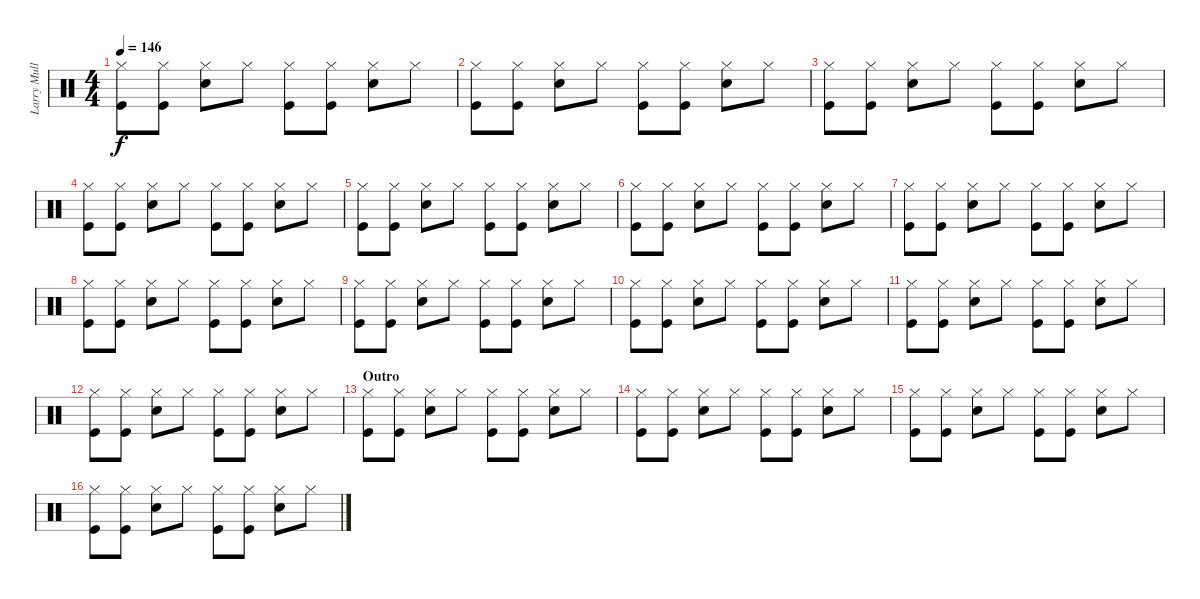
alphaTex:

\track ("Larry Mullen" "Larry Mull") {instrument percussion}
\staff {score}
\articulation defaults
\ts (4 4)
\tempo 146
\clef neutral
\ks c
("Hi-Hat (closed)" "Kick (hit)").8{dy f} ("Hi-Hat (closed)" "Kick (hit)").8 ("Hi-Hat (closed)" "Snare (hit) 2").8 "Hi-Hat (closed)".8 ("Hi-Hat (closed)" "Kick (hit)").8 ("Hi-Hat (closed)" "Kick (hit)").8 ("Hi-Hat (closed)" "Snare (hit) 2").8 "Hi-Hat (closed)".8 |
("Hi-Hat (closed)" "Kick (hit)").8 ("Hi-Hat (closed)" "Kick (hit)").8 ("Hi-Hat (closed)" "Snare (hit) 2").8 "Hi-Hat (closed)".8 ("Hi-Hat (closed)" "Kick (hit)").8 ("Hi-Hat (closed)" "Kick (hit)").8 ("Hi-Hat (closed)" "Snare (hit) 2").8 "Hi-Hat (closed)".8 |
("Hi-Hat (closed)" "Kick (hit)").8 ("Hi-Hat (closed)" "Kick (hit)").8 ("Hi-Hat (closed)" "Snare (hit) 2").8 "Hi-Hat (closed)".8 ("Hi-Hat (closed)" "Kick (hit)").8 ("Hi-Hat (closed)" "Kick (hit)").8 ("Hi-Hat (closed)" "Snare (hit) 2").8 "Hi-Hat (closed)".8 |
("Hi-Hat (closed)" "Kick (hit)").8 ("Hi-Hat (closed)" "Kick (hit)").8 ("Hi-Hat (closed)" "Snare (hit) 2").8 "Hi-Hat (closed)".8 ("Hi-Hat (closed)" "Kick (hit)").8 ("Hi-Hat (closed)" "Kick (hit)").8 ("Hi-Hat (closed)" "Snare (hit) 2").8 "Hi-Hat (closed)".8 |
("Hi-Hat (closed)" "Kick (hit)").8 ("Hi-Hat (closed)" "Kick (hit)").8 ("Hi-Hat (closed)" "Snare (hit) 2").8 "Hi-Hat (closed)".8 ("Hi-Hat (closed)" "Kick (hit)").8 ("Hi-Hat (closed)" "Kick (hit)").8 ("Hi-Hat (closed)" "Snare (hit) 2").8 "Hi-Hat (closed)".8 |
("Hi-Hat (closed)" "Kick (hit)").8 ("Hi-Hat (closed)" "Kick (hit)").8 ("Hi-Hat (closed)" "Snare (hit) 2").8 "Hi-Hat (closed)".8 ("Hi-Hat (closed)" "Kick (hit)").8 ("Hi-Hat (closed)" "Kick (hit)").8 ("Hi-Hat (closed)" "Snare (hit) 2").8 "Hi-Hat (closed)".8 |
("Hi-Hat (closed)" "Kick (hit)").8 ("Hi-Hat (closed)" "Kick (hit)").8 ("Hi-Hat (closed)" "Snare (hit) 2").8 "Hi-Hat (closed)".8 ("Hi-Hat (closed)" "Kick (hit)").8 ("Hi-Hat (closed)" "Kick (hit)").8 ("Hi-Hat (closed)" "Snare (hit) 2").8 "Hi-Hat (closed)".8 |
("Hi-Hat (closed)" "Kick (hit)").8 ("Hi-Hat (closed)" "Kick (hit)").8 ("Hi-Hat (closed)" "Snare (hit) 2").8 "Hi-Hat (closed)".8 ("Hi-Hat (closed)" "Kick (hit)").8 ("Hi-Hat (closed)" "Kick (hit)").8 ("Hi-Hat (closed)" "Snare (hit) 2").8 "Hi-Hat (closed)".8 |
("Hi-Hat (closed)" "Kick (hit)").8 ("Hi-Hat (closed)" "Kick (hit)").8 ("Hi-Hat (closed)" "Snare (hit) 2").8 "Hi-Hat (closed)".8 ("Hi-Hat (closed)" "Kick (hit)").8 ("Hi-Hat (closed)" "Kick (hit)").8 ("Hi-Hat (closed)" "Snare (hit) 2").8 "Hi-Hat (closed)".8 |
("Hi-Hat (closed)" "Kick (hit)").8 ("Hi-Hat (closed)" "Kick (hit)").8 ("Hi-Hat (closed)" "Snare (hit) 2").8 "Hi-Hat (closed)".8 ("Hi-Hat (closed)" "Kick (hit)").8 ("Hi-Hat (closed)" "Kick (hit)").8 ("Hi-Hat (closed)" "Snare (hit) 2").8 "Hi-Hat (closed)".8 |
("Hi-Hat (closed)" "Kick (hit)").8 ("Hi-Hat (closed)" "Kick (hit)").8 ("Hi-Hat (closed)" "Snare (hit) 2").8 "Hi-Hat (closed)".8 ("Hi-Hat (closed)" "Kick (hit)").8 ("Hi-Hat (closed)" "Kick (hit)").8 ("Hi-Hat (closed)" "Snare (hit) 2").8 "Hi-Hat (closed)".8 |
("Hi-Hat (closed)" "Kick (hit)").8 ("Hi-Hat (closed)" "Kick (hit)").8 ("Hi-Hat (closed)" "Snare (hit) 2").8 "Hi-Hat (closed)".8 ("Hi-Hat (closed)" "Kick (hit)").8 ("Hi-Hat (closed)" "Kick (hit)").8 ("Hi-Hat (closed)" "Snare (hit) 2").8 "Hi-Hat (closed)".8 |
\section ("" "Outro")
("Hi-Hat (closed)" "Kick (hit)").8 ("Hi-Hat (closed)" "Kick (hit)").8 ("Hi-Hat (closed)" "Snare (hit) 2").8 "Hi-Hat (closed)".8 ("Hi-Hat (closed)" "Kick (hit)").8 ("Hi-Hat (closed)" "Kick (hit)").8 ("Hi-Hat (closed)" "Snare (hit) 2").8 "Hi-Hat (closed)".8 |
("Hi-Hat (closed)" "Kick (hit)").8 ("Hi-Hat (closed)" "Kick (hit)").8 ("Hi-Hat (closed)" "Snare (hit) 2").8 "Hi-Hat (closed)".8 ("Hi-Hat (closed)" "Kick (hit)").8 ("Hi-Hat (closed)" "Kick (hit)").8 ("Hi-Hat (closed)" "Snare (hit) 2").8 "Hi-Hat (closed)".8 |
("Hi-Hat (closed)" "Kick (hit)").8 ("Hi-Hat (closed)" "Kick (hit)").8 ("Hi-Hat (closed)" "Snare (hit) 2").8 "Hi-Hat (closed)".8 ("Hi-Hat (closed)" "Kick (hit)").8 ("Hi-Hat (closed)" "Kick (hit)").8 ("Hi-Hat (closed)" "Snare (hit) 2").8 "Hi-Hat (closed)".8 |
("Hi-Hat (closed)" "Kick (hit)").8 ("Hi-Hat (closed)" "Kick (hit)").8 ("Hi-Hat (closed)" "Snare (hit) 2").8 "Hi-Hat (closed)".8 ("Hi-Hat (closed)" "Kick (hit)").8 ("Hi-Hat (closed)" "Kick (hit)").8 ("Hi-Hat (closed)" "Snare (hit) 2").8 "Hi-Hat (closed)".8
